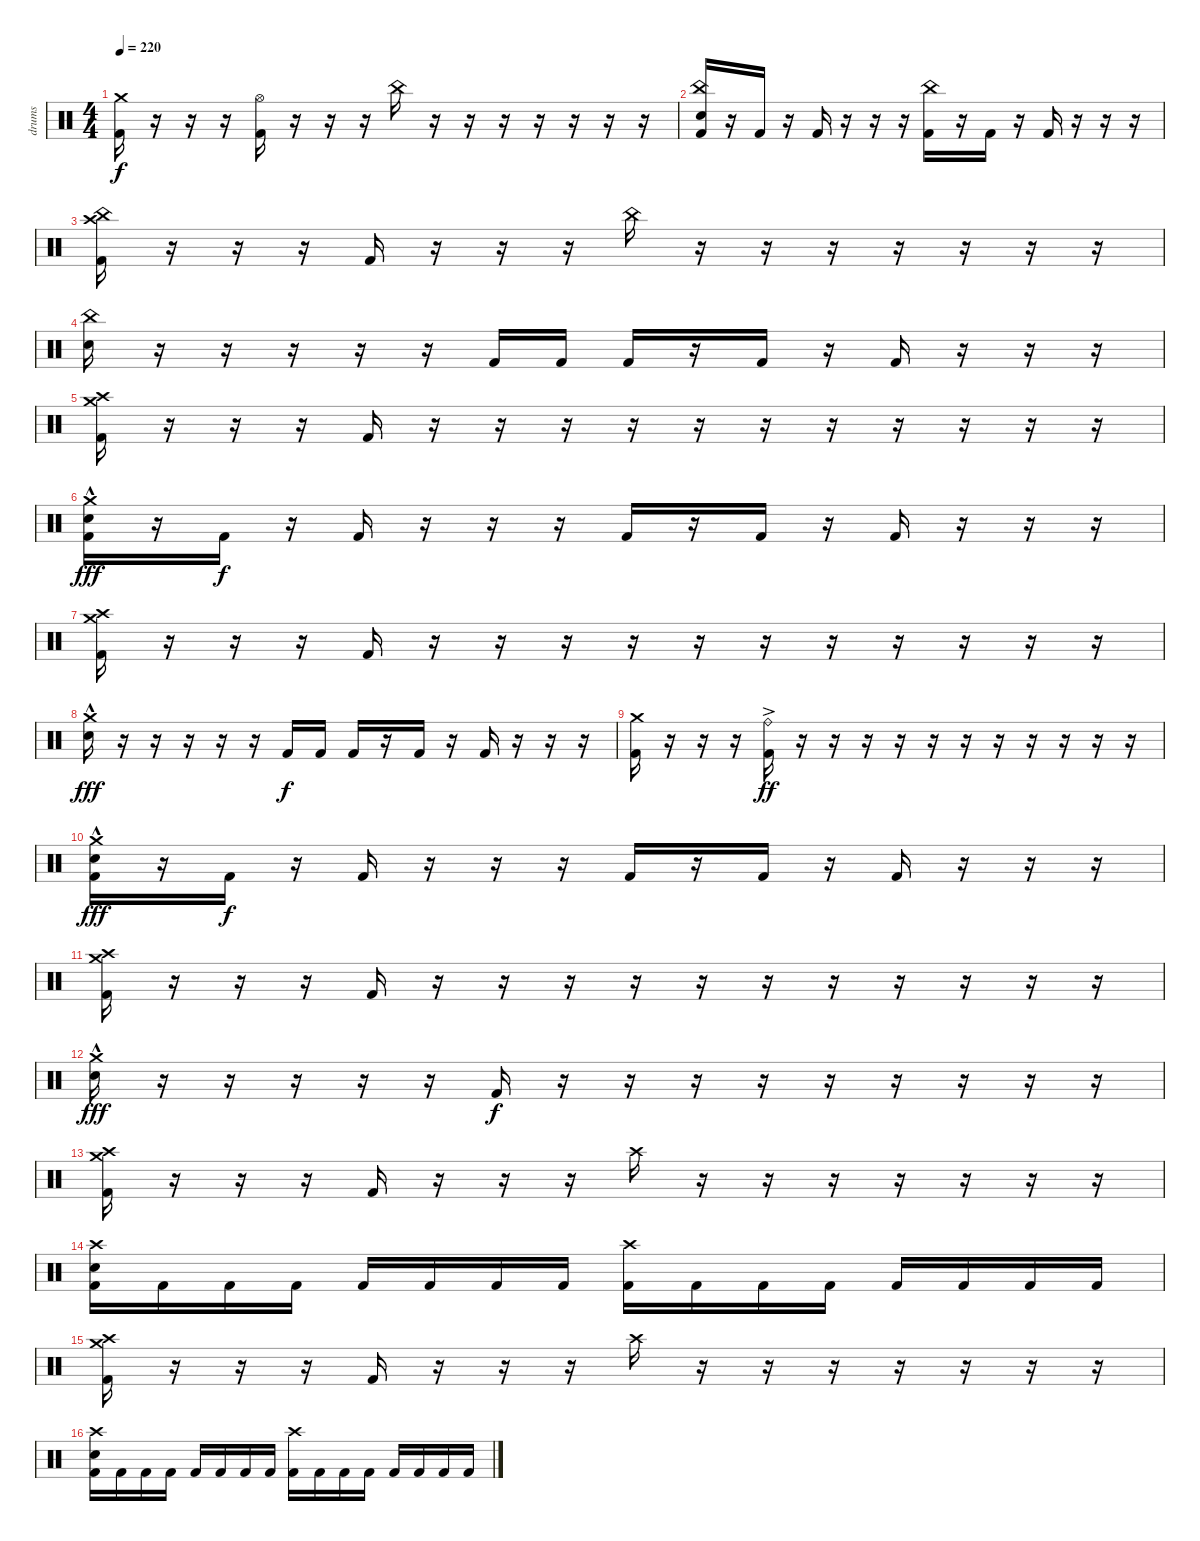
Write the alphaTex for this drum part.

\track ("drums" "drums") {instrument percussion}
\staff {score}
\articulation defaults
\ts (4 4)
\tempo 220
\clef neutral
\ks c
("Crash medium (hit)" "Kick (hit) 2").16{dy f} r.16 r.16 r.16 ("Hi-Hat (open)" "Kick (hit) 2").16 r.16 r.16 r.16 "China (hit)".16 r.16 r.16 r.16 r.16 r.16 r.16 r.16 |
("China (hit)" "Electric Snare (hit)" "Kick (hit) 2").16 r.16 "Kick (hit) 2".16 r.16 "Kick (hit) 2".16 r.16 r.16 r.16 ("China (hit)" "Kick (hit) 2").16 r.16 "Kick (hit) 2".16 r.16 "Kick (hit) 2".16 r.16 r.16 r.16 |
("Crash high (hit)" "China (hit)" "Kick (hit) 2").16 r.16 r.16 r.16 "Kick (hit) 2".16 r.16 r.16 r.16 "China (hit)".16 r.16 r.16 r.16 r.16 r.16 r.16 r.16 |
("China (hit)" "Electric Snare (hit)").16 r.16 r.16 r.16 r.16 r.16 "Kick (hit) 2".16 "Kick (hit) 2".16 "Kick (hit) 2".16 r.16 "Kick (hit) 2".16 r.16 "Kick (hit) 2".16 r.16 r.16 r.16 |
("Crash high (hit)" "Crash medium (hit)" "Kick (hit) 2").16 r.16 r.16 r.16 "Kick (hit) 2".16 r.16 r.16 r.16 r.16 r.16 r.16 r.16 r.16 r.16 r.16 r.16 |
("Crash medium (hit)" "Electric Snare (hit)"{hac} "Kick (hit) 2").16{dy fff} r.16 "Kick (hit) 2".16{dy f} r.16 "Kick (hit) 2".16 r.16 r.16 r.16 "Kick (hit) 2".16 r.16 "Kick (hit) 2".16 r.16 "Kick (hit) 2".16 r.16 r.16 r.16 |
("Crash high (hit)" "Crash medium (hit)" "Kick (hit) 2").16 r.16 r.16 r.16 "Kick (hit) 2".16 r.16 r.16 r.16 r.16 r.16 r.16 r.16 r.16 r.16 r.16 r.16 |
("Crash medium (hit)" "Electric Snare (hit)"{hac}).16{dy fff} r.16 r.16 r.16 r.16 r.16 "Kick (hit) 2".16{dy f} "Kick (hit) 2".16 "Kick (hit) 2".16 r.16 "Kick (hit) 2".16 r.16 "Kick (hit) 2".16 r.16 r.16 r.16 |
("Crash medium (hit)" "Kick (hit) 2").16 r.16 r.16 r.16 ("Ride (bell)"{ac} "Kick (hit) 2").16{dy ff} r.16 r.16 r.16 r.16 r.16 r.16 r.16 r.16 r.16 r.16 r.16 |
("Crash medium (hit)" "Electric Snare (hit)"{hac} "Kick (hit) 2").16{dy fff} r.16 "Kick (hit) 2".16{dy f} r.16 "Kick (hit) 2".16 r.16 r.16 r.16 "Kick (hit) 2".16 r.16 "Kick (hit) 2".16 r.16 "Kick (hit) 2".16 r.16 r.16 r.16 |
("Crash high (hit)" "Crash medium (hit)" "Kick (hit) 2").16 r.16 r.16 r.16 "Kick (hit) 2".16 r.16 r.16 r.16 r.16 r.16 r.16 r.16 r.16 r.16 r.16 r.16 |
("Crash medium (hit)" "Electric Snare (hit)"{hac}).16{dy fff} r.16 r.16 r.16 r.16 r.16 "Kick (hit) 2".16{dy f} r.16 r.16 r.16 r.16 r.16 r.16 r.16 r.16 r.16 |
("Crash high (hit)" "Crash medium (hit)" "Kick (hit) 2").16 r.16 r.16 r.16 "Kick (hit) 2".16 r.16 r.16 r.16 "Crash high (hit)".16 r.16 r.16 r.16 r.16 r.16 r.16 r.16 |
("Crash high (hit)" "Electric Snare (hit)" "Kick (hit) 2").16 "Kick (hit) 2".16 "Kick (hit) 2".16 "Kick (hit) 2".16 "Kick (hit) 2".16 "Kick (hit) 2".16 "Kick (hit) 2".16 "Kick (hit) 2".16 ("Crash high (hit)" "Kick (hit) 2").16 "Kick (hit) 2".16 "Kick (hit) 2".16 "Kick (hit) 2".16 "Kick (hit) 2".16 "Kick (hit) 2".16 "Kick (hit) 2".16 "Kick (hit) 2".16 |
("Crash high (hit)" "Crash medium (hit)" "Kick (hit) 2").16 r.16 r.16 r.16 "Kick (hit) 2".16 r.16 r.16 r.16 "Crash high (hit)".16 r.16 r.16 r.16 r.16 r.16 r.16 r.16 |
("Crash high (hit)" "Electric Snare (hit)" "Kick (hit) 2").16 "Kick (hit) 2".16 "Kick (hit) 2".16 "Kick (hit) 2".16 "Kick (hit) 2".16 "Kick (hit) 2".16 "Kick (hit) 2".16 "Kick (hit) 2".16 ("Crash high (hit)" "Kick (hit) 2").16 "Kick (hit) 2".16 "Kick (hit) 2".16 "Kick (hit) 2".16 "Kick (hit) 2".16 "Kick (hit) 2".16 "Kick (hit) 2".16 "Kick (hit) 2".16
